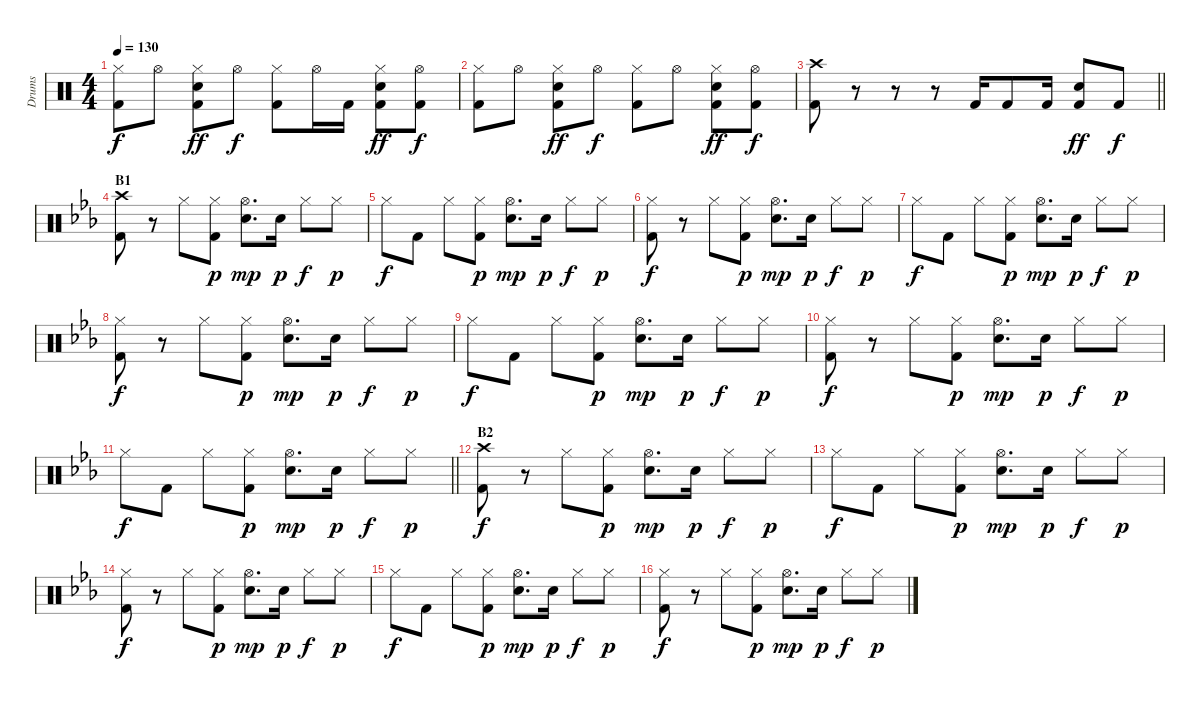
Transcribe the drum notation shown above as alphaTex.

\track ("Drums" "Drums") {instrument percussion}
\staff {score}
\articulation defaults
\ts (4 4)
\tempo 130
\clef neutral
\ks c
("Hi-Hat (closed)" "Kick (hit) 2").8{dy f} "Hi-Hat (open)".8 ("Hi-Hat (closed)" "Hand Clap (hit)" "Kick (hit) 2").8{dy ff} "Hi-Hat (open)".8{dy f} ("Hi-Hat (closed)" "Kick (hit) 2").8 "Hi-Hat (open)".16 "Kick (hit) 2".16 ("Hi-Hat (closed)" "Hand Clap (hit)" "Kick (hit) 2").8{dy ff} ("Hi-Hat (open)" "Kick (hit) 2").8{dy f} |
("Hi-Hat (closed)" "Kick (hit) 2").8 "Hi-Hat (open)".8 ("Hi-Hat (closed)" "Hand Clap (hit)" "Kick (hit) 2").8{dy ff} "Hi-Hat (open)".8{dy f} ("Hi-Hat (closed)" "Kick (hit) 2").8 "Hi-Hat (open)".8 ("Hi-Hat (closed)" "Hand Clap (hit)" "Kick (hit) 2").8{dy ff} ("Hi-Hat (open)" "Kick (hit) 2").8{dy f} |
\barLineRight lightlight
("Crash high (hit)" "Kick (hit) 2").8 r.8 r.8 r.8 "Kick (hit) 2".16 "Kick (hit) 2".8 "Kick (hit) 2".16 ("Hand Clap (hit)" "Kick (hit) 2").8{dy ff} "Kick (hit) 2".8{dy f} |
\section ("" "B1")
\ks eb
("Crash high (hit)" "Kick (hit) 2").8 r.8 "Hi-Hat (closed)".8 ("Hi-Hat (closed)" "Kick (hit) 2").8{dy p} ("Hi-Hat (open)" "Electric Snare (hit)").8{d dy mp} "Electric Snare (hit)".16{dy p} "Hi-Hat (closed)".8{dy f} "Hi-Hat (closed)".8{dy p} |
"Hi-Hat (closed)".8{dy f} "Kick (hit) 2".8 "Hi-Hat (closed)".8 ("Hi-Hat (closed)" "Kick (hit) 2").8{dy p} ("Hi-Hat (open)" "Electric Snare (hit)").8{d dy mp} "Electric Snare (hit)".16{dy p} "Hi-Hat (closed)".8{dy f} "Hi-Hat (closed)".8{dy p} |
("Hi-Hat (closed)" "Kick (hit) 2").8{dy f} r.8 "Hi-Hat (closed)".8 ("Hi-Hat (closed)" "Kick (hit) 2").8{dy p} ("Hi-Hat (open)" "Electric Snare (hit)").8{d dy mp} "Electric Snare (hit)".16{dy p} "Hi-Hat (closed)".8{dy f} "Hi-Hat (closed)".8{dy p} |
"Hi-Hat (closed)".8{dy f} "Kick (hit) 2".8 "Hi-Hat (closed)".8 ("Hi-Hat (closed)" "Kick (hit) 2").8{dy p} ("Hi-Hat (open)" "Electric Snare (hit)").8{d dy mp} "Electric Snare (hit)".16{dy p} "Hi-Hat (closed)".8{dy f} "Hi-Hat (closed)".8{dy p} |
("Hi-Hat (closed)" "Kick (hit) 2").8{dy f} r.8 "Hi-Hat (closed)".8 ("Hi-Hat (closed)" "Kick (hit) 2").8{dy p} ("Hi-Hat (open)" "Electric Snare (hit)").8{d dy mp} "Electric Snare (hit)".16{dy p} "Hi-Hat (closed)".8{dy f} "Hi-Hat (closed)".8{dy p} |
"Hi-Hat (closed)".8{dy f} "Kick (hit) 2".8 "Hi-Hat (closed)".8 ("Hi-Hat (closed)" "Kick (hit) 2").8{dy p} ("Hi-Hat (open)" "Electric Snare (hit)").8{d dy mp} "Electric Snare (hit)".16{dy p} "Hi-Hat (closed)".8{dy f} "Hi-Hat (closed)".8{dy p} |
("Hi-Hat (closed)" "Kick (hit) 2").8{dy f} r.8 "Hi-Hat (closed)".8 ("Hi-Hat (closed)" "Kick (hit) 2").8{dy p} ("Hi-Hat (open)" "Electric Snare (hit)").8{d dy mp} "Electric Snare (hit)".16{dy p} "Hi-Hat (closed)".8{dy f} "Hi-Hat (closed)".8{dy p} |
\barLineRight lightlight "Hi-Hat (closed)".8{dy f} "Kick (hit) 2".8 "Hi-Hat (closed)".8
("Hi-Hat (closed)" "Kick (hit) 2").8{dy p} ("Hi-Hat (open)" "Electric Snare (hit)").8{d dy mp} "Electric Snare (hit)".16{dy p} "Hi-Hat (closed)".8{dy f} "Hi-Hat (closed)".8{dy p} |
\section ("" "B2")
("Crash high (hit)" "Kick (hit) 2").8{dy f} r.8 "Hi-Hat (closed)".8 ("Hi-Hat (closed)" "Kick (hit) 2").8{dy p} ("Hi-Hat (open)" "Electric Snare (hit)").8{d dy mp} "Electric Snare (hit)".16{dy p} "Hi-Hat (closed)".8{dy f} "Hi-Hat (closed)".8{dy p} |
"Hi-Hat (closed)".8{dy f} "Kick (hit) 2".8 "Hi-Hat (closed)".8 ("Hi-Hat (closed)" "Kick (hit) 2").8{dy p} ("Hi-Hat (open)" "Electric Snare (hit)").8{d dy mp} "Electric Snare (hit)".16{dy p} "Hi-Hat (closed)".8{dy f} "Hi-Hat (closed)".8{dy p} |
("Hi-Hat (closed)" "Kick (hit) 2").8{dy f} r.8 "Hi-Hat (closed)".8 ("Hi-Hat (closed)" "Kick (hit) 2").8{dy p} ("Hi-Hat (open)" "Electric Snare (hit)").8{d dy mp} "Electric Snare (hit)".16{dy p} "Hi-Hat (closed)".8{dy f} "Hi-Hat (closed)".8{dy p} |
"Hi-Hat (closed)".8{dy f} "Kick (hit) 2".8 "Hi-Hat (closed)".8 ("Hi-Hat (closed)" "Kick (hit) 2").8{dy p} ("Hi-Hat (open)" "Electric Snare (hit)").8{d dy mp} "Electric Snare (hit)".16{dy p} "Hi-Hat (closed)".8{dy f} "Hi-Hat (closed)".8{dy p} |
("Hi-Hat (closed)" "Kick (hit) 2").8{dy f} r.8 "Hi-Hat (closed)".8 ("Hi-Hat (closed)" "Kick (hit) 2").8{dy p} ("Hi-Hat (open)" "Electric Snare (hit)").8{d dy mp} "Electric Snare (hit)".16{dy p} "Hi-Hat (closed)".8{dy f} "Hi-Hat (closed)".8{dy p}
